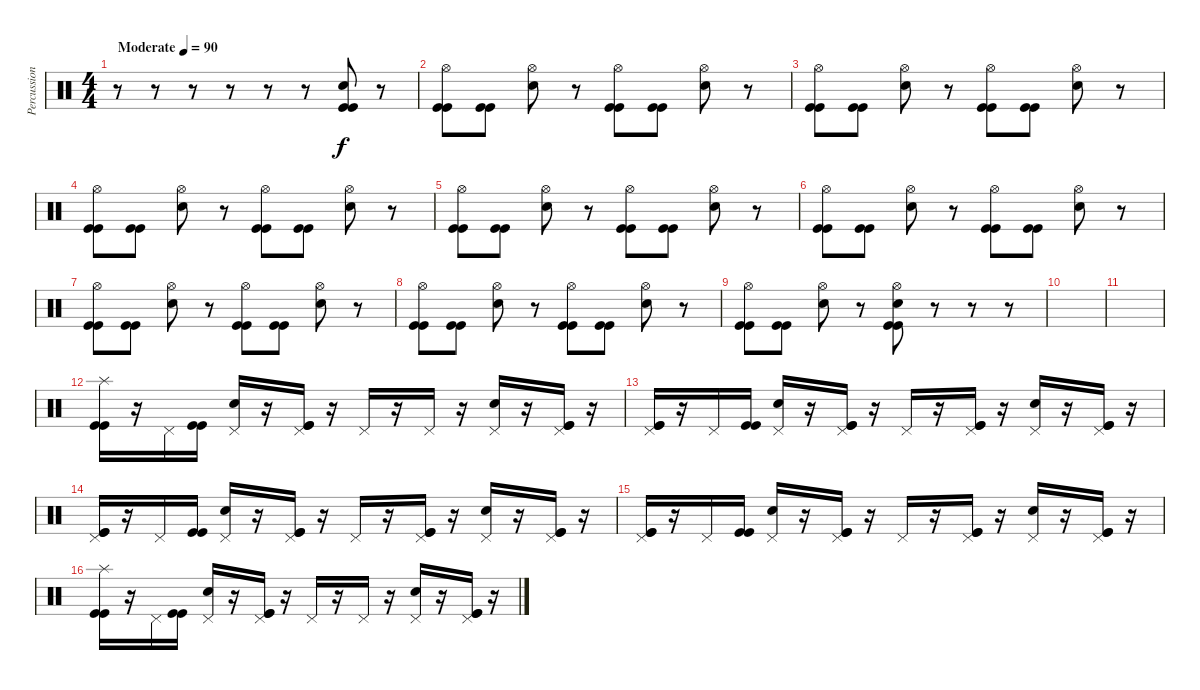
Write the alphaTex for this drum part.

\track ("Percussion" "Percussion") {instrument percussion}
\staff {score}
\articulation defaults
\ts (4 4)
\tempo (90 "Moderate")
\clef neutral
\ks c
r.8{dy f} r.8 r.8 r.8 r.8 r.8 ("Electric Snare (hit)" "Kick (hit)" "Kick (hit)").8 r.8 |
("Hi-Hat (open)" "Kick (hit)" "Kick (hit)").8 ("Kick (hit)" "Kick (hit)").8 ("Hi-Hat (open)" "Electric Snare (hit)").8 r.8 ("Hi-Hat (open)" "Kick (hit)" "Kick (hit)").8 ("Kick (hit)" "Kick (hit)").8 ("Hi-Hat (open)" "Electric Snare (hit)").8 r.8 |
("Hi-Hat (open)" "Kick (hit)" "Kick (hit)").8 ("Kick (hit)" "Kick (hit)").8 ("Hi-Hat (open)" "Electric Snare (hit)").8 r.8 ("Hi-Hat (open)" "Kick (hit)" "Kick (hit)").8 ("Kick (hit)" "Kick (hit)").8 ("Hi-Hat (open)" "Electric Snare (hit)").8 r.8 |
("Hi-Hat (open)" "Kick (hit)" "Kick (hit)").8 ("Kick (hit)" "Kick (hit)").8 ("Hi-Hat (open)" "Electric Snare (hit)").8 r.8 ("Hi-Hat (open)" "Kick (hit)" "Kick (hit)").8 ("Kick (hit)" "Kick (hit)").8 ("Hi-Hat (open)" "Electric Snare (hit)").8 r.8 |
("Hi-Hat (open)" "Kick (hit)" "Kick (hit)").8 ("Kick (hit)" "Kick (hit)").8 ("Hi-Hat (open)" "Electric Snare (hit)").8 r.8 ("Hi-Hat (open)" "Kick (hit)" "Kick (hit)").8 ("Kick (hit)" "Kick (hit)").8 ("Hi-Hat (open)" "Electric Snare (hit)").8 r.8 |
("Hi-Hat (open)" "Kick (hit)" "Kick (hit)").8 ("Kick (hit)" "Kick (hit)").8 ("Hi-Hat (open)" "Electric Snare (hit)").8 r.8 ("Hi-Hat (open)" "Kick (hit)" "Kick (hit)").8 ("Kick (hit)" "Kick (hit)").8 ("Hi-Hat (open)" "Electric Snare (hit)").8 r.8 |
("Hi-Hat (open)" "Kick (hit)" "Kick (hit)").8 ("Kick (hit)" "Kick (hit)").8 ("Hi-Hat (open)" "Electric Snare (hit)").8 r.8 ("Hi-Hat (open)" "Kick (hit)" "Kick (hit)").8 ("Kick (hit)" "Kick (hit)").8 ("Hi-Hat (open)" "Electric Snare (hit)").8 r.8 |
("Hi-Hat (open)" "Kick (hit)" "Kick (hit)").8 ("Kick (hit)" "Kick (hit)").8 ("Hi-Hat (open)" "Electric Snare (hit)").8 r.8 ("Hi-Hat (open)" "Kick (hit)" "Kick (hit)").8 ("Kick (hit)" "Kick (hit)").8 ("Hi-Hat (open)" "Electric Snare (hit)").8 r.8 |
("Hi-Hat (open)" "Kick (hit)" "Kick (hit)").8 ("Kick (hit)" "Kick (hit)").8 ("Hi-Hat (open)" "Electric Snare (hit)").8 r.8 ("Hi-Hat (open)" "Kick (hit)" "Kick (hit)" "Electric Snare (hit)").8 r.8 r.8 r.8 |
|
|
("Splash (hit)" "Kick (hit)" "Kick (hit)").16 r.16 "Pedal Hi-Hat (hit)".16 ("Kick (hit)" "Kick (hit)").16 ("Pedal Hi-Hat (hit)" "Electric Snare (hit)").16 r.16 ("Pedal Hi-Hat (hit)" "Kick (hit)" "Kick (hit)").16 r.16 "Pedal Hi-Hat (hit)".16 r.16 "Pedal Hi-Hat (hit)".16 r.16 ("Pedal Hi-Hat (hit)" "Electric Snare (hit)").16 r.16 ("Pedal Hi-Hat (hit)" "Kick (hit)" "Kick (hit)").16 r.16 |
("Pedal Hi-Hat (hit)" "Kick (hit)" "Kick (hit)").16 r.16 "Pedal Hi-Hat (hit)".16 ("Kick (hit)" "Kick (hit)").16 ("Pedal Hi-Hat (hit)" "Electric Snare (hit)").16 r.16 ("Pedal Hi-Hat (hit)" "Kick (hit)" "Kick (hit)").16 r.16 "Pedal Hi-Hat (hit)".16 r.16 ("Pedal Hi-Hat (hit)" "Kick (hit)" "Kick (hit)").16 r.16 ("Pedal Hi-Hat (hit)" "Electric Snare (hit)").16 r.16 ("Pedal Hi-Hat (hit)" "Kick (hit)" "Kick (hit)").16 r.16 |
("Pedal Hi-Hat (hit)" "Kick (hit)" "Kick (hit)").16 r.16 "Pedal Hi-Hat (hit)".16 ("Kick (hit)" "Kick (hit)").16 ("Pedal Hi-Hat (hit)" "Electric Snare (hit)").16 r.16 ("Pedal Hi-Hat (hit)" "Kick (hit)" "Kick (hit)").16 r.16 "Pedal Hi-Hat (hit)".16 r.16 ("Pedal Hi-Hat (hit)" "Kick (hit)" "Kick (hit)").16 r.16 ("Pedal Hi-Hat (hit)" "Electric Snare (hit)").16 r.16 ("Pedal Hi-Hat (hit)" "Kick (hit)" "Kick (hit)").16 r.16 |
("Pedal Hi-Hat (hit)" "Kick (hit)" "Kick (hit)").16 r.16 "Pedal Hi-Hat (hit)".16 ("Kick (hit)" "Kick (hit)").16 ("Pedal Hi-Hat (hit)" "Electric Snare (hit)").16 r.16 ("Pedal Hi-Hat (hit)" "Kick (hit)" "Kick (hit)").16 r.16 "Pedal Hi-Hat (hit)".16 r.16 ("Pedal Hi-Hat (hit)" "Kick (hit)" "Kick (hit)").16 r.16 ("Pedal Hi-Hat (hit)" "Electric Snare (hit)").16 r.16 ("Pedal Hi-Hat (hit)" "Kick (hit)" "Kick (hit)").16 r.16 |
("Splash (hit)" "Kick (hit)" "Kick (hit)").16 r.16 "Pedal Hi-Hat (hit)".16 ("Kick (hit)" "Kick (hit)").16 ("Pedal Hi-Hat (hit)" "Electric Snare (hit)").16 r.16 ("Pedal Hi-Hat (hit)" "Kick (hit)" "Kick (hit)").16 r.16 "Pedal Hi-Hat (hit)".16 r.16 "Pedal Hi-Hat (hit)".16 r.16 ("Pedal Hi-Hat (hit)" "Electric Snare (hit)").16 r.16 ("Pedal Hi-Hat (hit)" "Kick (hit)" "Kick (hit)").16 r.16
